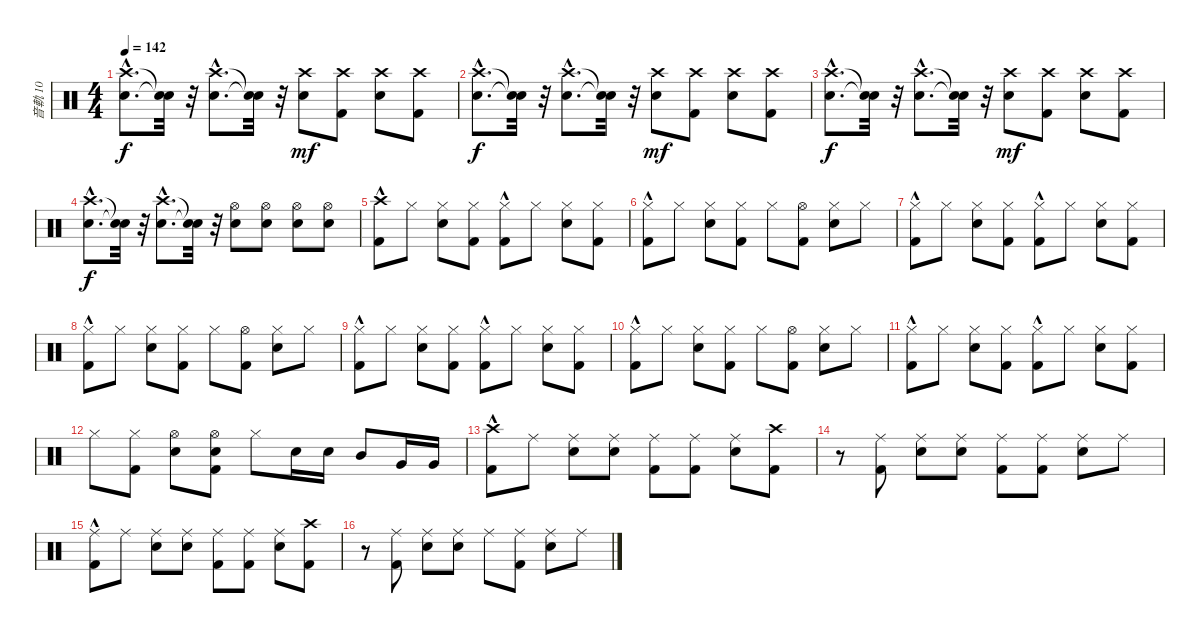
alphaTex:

\track ("音軌 10" "音軌 10") {instrument percussion}
\staff {score}
\articulation defaults
\ts (4 4)
\tempo 142
\clef neutral
\ks c
("Crash high (hit)"{hac} "Snare (hit) 2"{hac}).8{d dy f} ("Snare (hit)"{t} "Snare (hit)"{t}).32 r.32 ("Crash high (hit)"{hac} "Snare (hit) 2"{hac}).8{d} ("Snare (hit)"{t} "Snare (hit)"{t}).32 r.32 ("Crash high (hit)" "Snare (hit) 2").8{dy mf} ("Crash high (hit)" "Kick (hit) 2").8 ("Crash high (hit)" "Snare (hit) 2").8 ("Crash high (hit)" "Kick (hit) 2").8 |
("Crash high (hit)"{hac} "Snare (hit) 2"{hac}).8{d dy f} ("Snare (hit)"{t} "Snare (hit)"{t}).32 r.32 ("Crash high (hit)"{hac} "Snare (hit) 2"{hac}).8{d} ("Snare (hit)"{t} "Snare (hit)"{t}).32 r.32 ("Crash high (hit)" "Snare (hit) 2").8{dy mf} ("Crash high (hit)" "Kick (hit) 2").8 ("Crash high (hit)" "Snare (hit) 2").8 ("Crash high (hit)" "Kick (hit) 2").8 |
("Crash high (hit)"{hac} "Snare (hit) 2"{hac}).8{d dy f} ("Snare (hit)"{t} "Snare (hit)"{t}).32 r.32 ("Crash high (hit)"{hac} "Snare (hit) 2"{hac}).8{d} ("Snare (hit)"{t} "Snare (hit)"{t}).32 r.32 ("Crash high (hit)" "Snare (hit) 2").8{dy mf} ("Crash high (hit)" "Kick (hit) 2").8 ("Crash high (hit)" "Snare (hit) 2").8 ("Crash high (hit)" "Kick (hit) 2").8 |
("Crash high (hit)"{hac} "Snare (hit) 2"{hac}).8{d dy f} ("Snare (hit)"{t} "Snare (hit)"{t}).32 r.32 ("Crash high (hit)"{hac} "Snare (hit) 2"{hac}).8{d} ("Snare (hit)"{t} "Snare (hit)"{t}).32 r.32 ("Snare (hit) 2" "Hi-Hat (open)").8 ("Snare (hit) 2" "Hi-Hat (open)").8 ("Snare (hit) 2" "Hi-Hat (open)").8 ("Snare (hit) 2" "Hi-Hat (open)").8 |
("Crash high (hit)" "Kick (hit) 2"{hac}).8 "Hi-Hat (closed)".8 ("Hi-Hat (closed)" "Snare (hit) 2").8 ("Hi-Hat (closed)" "Kick (hit) 2").8 ("Hi-Hat (closed)" "Kick (hit) 2"{hac}).8 "Hi-Hat (closed)".8 ("Hi-Hat (closed)" "Snare (hit) 2").8 ("Hi-Hat (closed)" "Kick (hit) 2").8 |
("Hi-Hat (closed)" "Kick (hit) 2"{hac}).8 "Hi-Hat (closed)".8 ("Hi-Hat (closed)" "Snare (hit) 2").8 ("Hi-Hat (closed)" "Kick (hit) 2").8 "Hi-Hat (closed)".8 ("Hi-Hat (open)" "Kick (hit) 2").8 ("Hi-Hat (closed)" "Snare (hit) 2").8 "Hi-Hat (closed)".8 |
("Hi-Hat (closed)" "Kick (hit) 2"{hac}).8 "Hi-Hat (closed)".8 ("Hi-Hat (closed)" "Snare (hit) 2").8 ("Hi-Hat (closed)" "Kick (hit) 2").8 ("Hi-Hat (closed)" "Kick (hit) 2"{hac}).8 "Hi-Hat (closed)".8 ("Hi-Hat (closed)" "Snare (hit) 2").8 ("Hi-Hat (closed)" "Kick (hit) 2").8 |
("Hi-Hat (closed)" "Kick (hit) 2"{hac}).8 "Hi-Hat (closed)".8 ("Hi-Hat (closed)" "Snare (hit) 2").8 ("Hi-Hat (closed)" "Kick (hit) 2").8 "Hi-Hat (closed)".8 ("Hi-Hat (open)" "Kick (hit) 2").8 ("Hi-Hat (closed)" "Snare (hit) 2").8 "Hi-Hat (closed)".8 |
("Hi-Hat (closed)" "Kick (hit) 2"{hac}).8 "Hi-Hat (closed)".8 ("Hi-Hat (closed)" "Snare (hit) 2").8 ("Hi-Hat (closed)" "Kick (hit) 2").8 ("Hi-Hat (closed)" "Kick (hit) 2"{hac}).8 "Hi-Hat (closed)".8 ("Hi-Hat (closed)" "Snare (hit) 2").8 ("Hi-Hat (closed)" "Kick (hit) 2").8 |
("Hi-Hat (closed)" "Kick (hit) 2"{hac}).8 "Hi-Hat (closed)".8 ("Hi-Hat (closed)" "Snare (hit) 2").8 ("Hi-Hat (closed)" "Kick (hit) 2").8 "Hi-Hat (closed)".8 ("Hi-Hat (open)" "Kick (hit) 2").8 ("Hi-Hat (closed)" "Snare (hit) 2").8 "Hi-Hat (closed)".8 |
("Hi-Hat (closed)" "Kick (hit) 2"{hac}).8 "Hi-Hat (closed)".8 ("Hi-Hat (closed)" "Snare (hit) 2").8 ("Hi-Hat (closed)" "Kick (hit) 2").8 ("Hi-Hat (closed)" "Kick (hit) 2"{hac}).8 "Hi-Hat (closed)".8 ("Hi-Hat (closed)" "Snare (hit) 2").8 ("Hi-Hat (closed)" "Kick (hit) 2").8 |
"Hi-Hat (closed)".8 ("Hi-Hat (closed)" "Kick (hit) 2").8 ("Hi-Hat (open)" "Snare (hit) 2").8 ("Hi-Hat (open)" "Snare (hit) 2" "Kick (hit) 2").8 "Hi-Hat (closed)".8 "Snare (hit) 2".16 "Snare (hit)".16 "Mid Tom (hit)".8 "Very Low Tom (hit)".16 "Very Low Tom (hit)".16 |
("Crash high (hit)" "Kick (hit) 2"{hac}).8 "Ride (middle)".8 ("Ride (middle)" "Snare (hit) 2").8 ("Ride (middle)" "Snare (hit) 2").8 ("Ride (middle)" "Kick (hit) 2").8 ("Ride (middle)" "Kick (hit) 2").8 ("Ride (middle)" "Snare (hit) 2").8 ("Crash high (hit)" "Kick (hit) 2").8 |
r.8 ("Ride (middle)" "Kick (hit) 2").8 ("Ride (middle)" "Snare (hit) 2").8 ("Ride (middle)" "Snare (hit) 2").8 ("Ride (middle)" "Kick (hit) 2").8 ("Ride (middle)" "Kick (hit) 2").8 ("Ride (middle)" "Snare (hit) 2").8 "Ride (middle)".8 |
("Ride (middle)" "Kick (hit) 2"{hac}).8 "Ride (middle)".8 ("Ride (middle)" "Snare (hit) 2").8 ("Ride (middle)" "Snare (hit) 2").8 ("Ride (middle)" "Kick (hit) 2").8 ("Ride (middle)" "Kick (hit) 2").8 ("Ride (middle)" "Snare (hit) 2").8 ("Crash high (hit)" "Kick (hit) 2").8 |
r.8 ("Ride (middle)" "Kick (hit) 2").8 ("Ride (middle)" "Snare (hit) 2").8 ("Ride (middle)" "Snare (hit) 2").8 "Ride (middle)".8 ("Ride (middle)" "Kick (hit) 2").8 ("Ride (middle)" "Snare (hit) 2").8 "Ride (middle)".8
